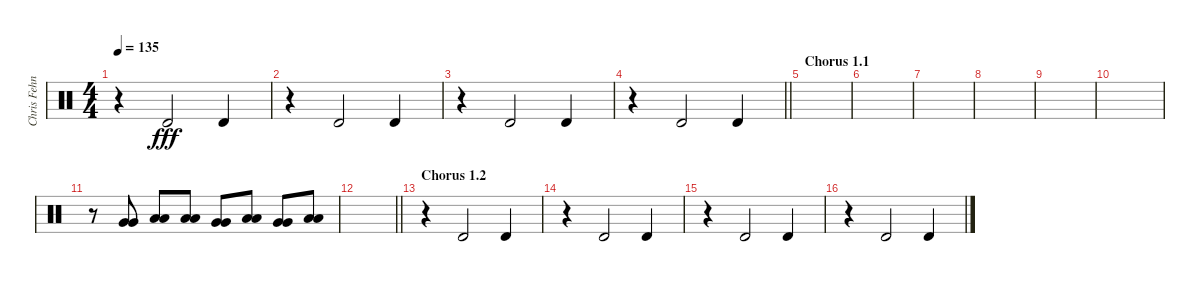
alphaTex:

\track ("Chris Fehn" "Chris Fehn") {instrument percussion}
\staff {score}
\articulation defaults
\ts (4 4)
\tempo 135
\clef neutral
\ks c
r.4{dy fff} "Timbale high (hit)".2 "Timbale high (hit)".4 |
r.4 "Timbale high (hit)".2 "Timbale high (hit)".4 |
r.4 "Timbale high (hit)".2 "Timbale high (hit)".4 |
\barLineRight lightlight
r.4 "Timbale high (hit)".2 "Timbale high (hit)".4 |
\section ("" "Chorus 1.1")
|
|
|
|
|
|
r.8 ("Very Low Tom (hit)" "Very Low Tom (hit)").8 ("Low Floor Tom (hit)" "Low Floor Tom (hit)").8 ("Low Floor Tom (hit)" "Low Floor Tom (hit)").8 ("Very Low Tom (hit)" "Very Low Tom (hit)").8 ("Low Floor Tom (hit)" "Low Floor Tom (hit)").8 ("Very Low Tom (hit)" "Very Low Tom (hit)").8 ("Low Floor Tom (hit)" "Low Floor Tom (hit)").8 |
\barLineRight lightlight
|
\section ("" "Chorus 1.2")
r.4 "Timbale high (hit)".2 "Timbale high (hit)".4 |
r.4 "Timbale high (hit)".2 "Timbale high (hit)".4 |
r.4 "Timbale high (hit)".2 "Timbale high (hit)".4 |
r.4 "Timbale high (hit)".2 "Timbale high (hit)".4
